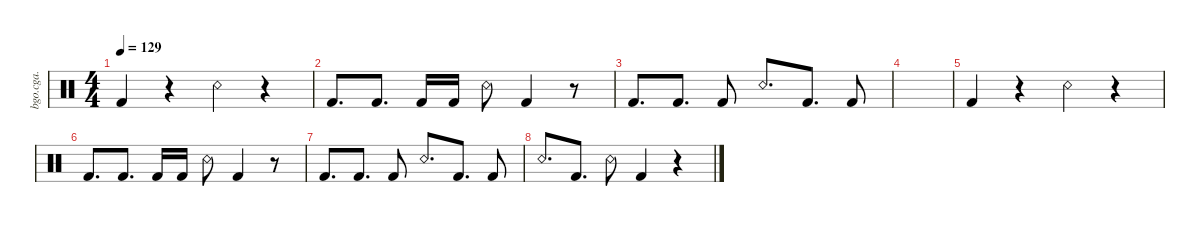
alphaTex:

\defaultSystemsLayout 4
\hideDynamics
\bracketExtendMode nobrackets
\otherSystemsTrackNameOrientation horizontal
\track ("Heiko's percussion" "bgo.cga.") {instrument percussion}
\staff {score}
\articulation defaults
\ts (4 4)
\tempo 129
\clef neutral
\ks c "Kick (hit) 2".4{dy mf}
r.4 "Snare (rim shot)".4 r.4 |
"Kick (hit) 2".8{d dy mp} "Kick (hit) 2".8{d} "Kick (hit) 2".16 "Kick (hit) 2".16 "Snare (rim shot)".8 "Kick (hit) 2".4 r.8 |
"Kick (hit) 2".8{d dy mf} "Kick (hit) 2".8{d dy p} "Kick (hit) 2".8{dy mf} "Snare (rim shot)".8{d} "Kick (hit) 2".8{d} "Kick (hit) 2".8{dy p} |
|
"Kick (hit) 2".4{dy mf} r.4 "Snare (rim shot)".4 r.4 |
"Kick (hit) 2".8{d dy mp} "Kick (hit) 2".8{d} "Kick (hit) 2".16 "Kick (hit) 2".16 "Snare (rim shot)".8 "Kick (hit) 2".4 r.8 |
"Kick (hit) 2".8{d} "Kick (hit) 2".8{d} "Kick (hit) 2".8 "Snare (rim shot)".8{d} "Kick (hit) 2".8{d} "Kick (hit) 2".8 |
"Snare (rim shot)".8{d} "Kick (hit) 2".8{d} "Snare (rim shot)".8 "Kick (hit) 2".4 r.4
